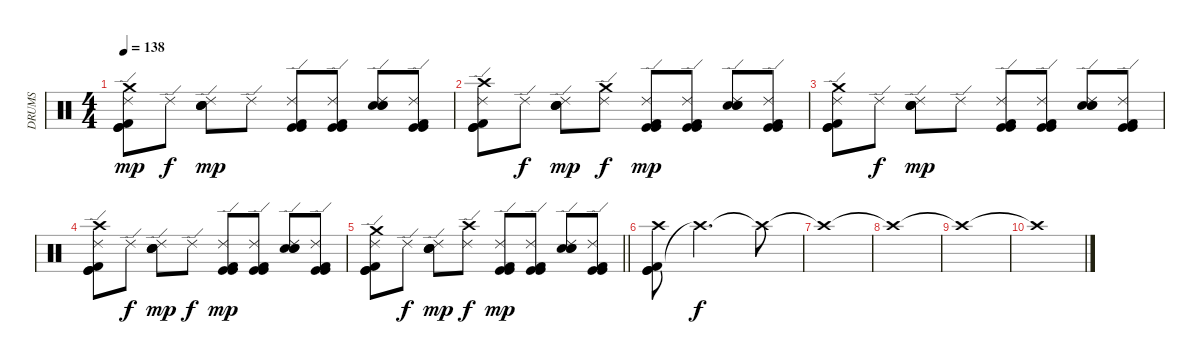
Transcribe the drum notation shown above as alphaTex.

\track ("DRUMS" "DRUMS") {instrument percussion}
\staff {score}
\articulation defaults
\ts (4 4)
\tempo 138
\clef neutral
\ks c
("Ride (edge) 2" "Kick (hit) 2" "Kick (hit)" "Kick (hit)" "Crash medium (hit)").8{dy mp} "Ride (edge) 2".8{dy f} ("Ride (edge) 2" "Electric Snare (hit)" "Snare (hit) 2" "Snare (hit) 2").8{dy mp} "Ride (edge) 2".8 ("Ride (edge) 2" "Kick (hit) 2" "Kick (hit)" "Kick (hit)").8 ("Ride (edge) 2" "Kick (hit) 2" "Kick (hit)" "Kick (hit)").8 ("Ride (edge) 2" "Electric Snare (hit)" "Snare (hit) 2" "Snare (hit) 2").8 ("Ride (edge) 2" "Kick (hit) 2" "Kick (hit)" "Kick (hit)").8 |
("Ride (edge) 2" "Kick (hit) 2" "Kick (hit)" "Kick (hit)" "Crash high (hit)").8 "Ride (edge) 2".8{dy f} ("Ride (edge) 2" "Electric Snare (hit)" "Snare (hit) 2" "Snare (hit) 2").8{dy mp} ("Ride (edge) 2" "Crash medium (hit)").8{dy f} ("Ride (edge) 2" "Kick (hit) 2" "Kick (hit)" "Kick (hit)").8{dy mp} ("Ride (edge) 2" "Kick (hit) 2" "Kick (hit)" "Kick (hit)").8 ("Ride (edge) 2" "Electric Snare (hit)" "Snare (hit) 2" "Snare (hit) 2").8 ("Ride (edge) 2" "Kick (hit) 2" "Kick (hit)" "Kick (hit)").8 |
("Ride (edge) 2" "Kick (hit) 2" "Kick (hit)" "Kick (hit)" "Crash medium (hit)").8 "Ride (edge) 2".8{dy f} ("Ride (edge) 2" "Electric Snare (hit)" "Snare (hit) 2" "Snare (hit) 2").8{dy mp} "Ride (edge) 2".8 ("Ride (edge) 2" "Kick (hit) 2" "Kick (hit)" "Kick (hit)").8 ("Ride (edge) 2" "Kick (hit) 2" "Kick (hit)" "Kick (hit)").8 ("Ride (edge) 2" "Electric Snare (hit)" "Snare (hit) 2" "Snare (hit) 2").8 ("Ride (edge) 2" "Kick (hit) 2" "Kick (hit)" "Kick (hit)").8 |
("Ride (edge) 2" "Kick (hit) 2" "Kick (hit)" "Kick (hit)" "Crash high (hit)").8 "Ride (edge) 2".8{dy f} ("Ride (edge) 2" "Electric Snare (hit)" "Snare (hit) 2" "Snare (hit) 2").8{dy mp} "Ride (edge) 2".8{dy f} ("Ride (edge) 2" "Kick (hit) 2" "Kick (hit)" "Kick (hit)").8{dy mp} ("Ride (edge) 2" "Kick (hit) 2" "Kick (hit)" "Kick (hit)").8 ("Ride (edge) 2" "Electric Snare (hit)" "Snare (hit) 2" "Snare (hit) 2").8 ("Ride (edge) 2" "Kick (hit) 2" "Kick (hit)" "Kick (hit)").8 |
\barLineRight lightlight
("Ride (edge) 2" "Kick (hit) 2" "Kick (hit)" "Kick (hit)" "Crash medium (hit)").8 "Ride (edge) 2".8{dy f} ("Ride (edge) 2" "Electric Snare (hit)" "Snare (hit) 2" "Snare (hit) 2").8{dy mp} ("Ride (edge) 2" "Crash high (hit)").8{dy f} ("Ride (edge) 2" "Kick (hit) 2" "Kick (hit)" "Kick (hit)").8{dy mp} ("Ride (edge) 2" "Kick (hit) 2" "Kick (hit)" "Kick (hit)").8 ("Ride (edge) 2" "Electric Snare (hit)" "Snare (hit) 2" "Snare (hit) 2").8 ("Ride (edge) 2" "Kick (hit) 2" "Kick (hit)" "Kick (hit)").8 |
("Kick (hit) 2" "Kick (hit)" "Kick (hit)" "Crash high (hit)").8{volume 10} "Crash high (hit)"{t}.2{d dy f} "Crash high (hit)"{t}.8 |
"Crash high (hit)"{t}.1{volume 5} |
"Crash high (hit)"{t}.1{volume 3} |
"Crash high (hit)"{t}.1{volume 1} |
"Crash high (hit)"{t}.1{volume 0}
